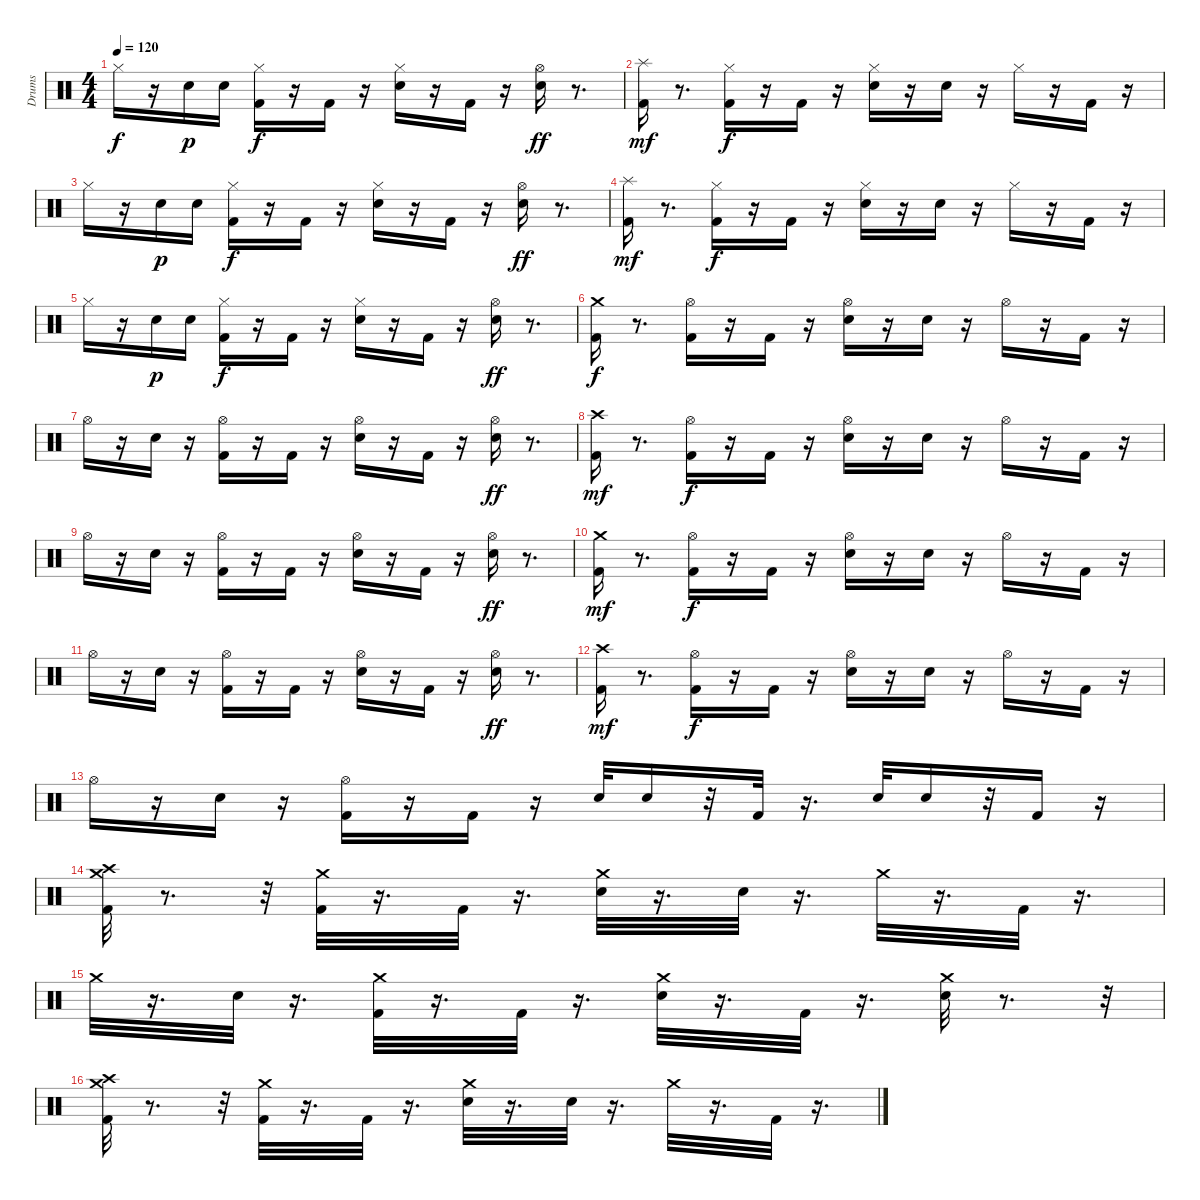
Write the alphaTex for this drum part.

\track ("Drums" "Drums") {instrument percussion}
\staff {score}
\articulation defaults
\ts (4 4)
\tempo 120
\clef neutral
\ks c "Hi-Hat (closed)".16{dy f}
r.16 "Snare (hit) 2".16{dy p} "Snare (hit) 2".16 ("Hi-Hat (closed)" "Kick (hit) 2").16{dy f} r.16 "Kick (hit) 2".16 r.16 ("Hi-Hat (closed)" "Snare (hit) 2").16 r.16 "Kick (hit) 2".16 r.16 ("Hi-Hat (open)" "Snare (hit) 2").16{dy ff} r.8{d} |
("Splash (hit)" "Kick (hit) 2").16{dy mf} r.8{d} ("Hi-Hat (closed)" "Kick (hit) 2").16{dy f} r.16 "Kick (hit) 2".16 r.16 ("Hi-Hat (closed)" "Snare (hit) 2").16 r.16 "Snare (hit) 2".16 r.16 "Hi-Hat (closed)".16 r.16 "Kick (hit) 2".16 r.16 |
"Hi-Hat (closed)".16 r.16 "Snare (hit) 2".16{dy p} "Snare (hit) 2".16 ("Hi-Hat (closed)" "Kick (hit) 2").16{dy f} r.16 "Kick (hit) 2".16 r.16 ("Hi-Hat (closed)" "Snare (hit) 2").16 r.16 "Kick (hit) 2".16 r.16 ("Hi-Hat (open)" "Snare (hit) 2").16{dy ff} r.8{d} |
("Splash (hit)" "Kick (hit) 2").16{dy mf} r.8{d} ("Hi-Hat (closed)" "Kick (hit) 2").16{dy f} r.16 "Kick (hit) 2".16 r.16 ("Hi-Hat (closed)" "Snare (hit) 2").16 r.16 "Snare (hit) 2".16 r.16 "Hi-Hat (closed)".16 r.16 "Kick (hit) 2".16 r.16 |
"Hi-Hat (closed)".16 r.16 "Snare (hit) 2".16{dy p} "Snare (hit) 2".16 ("Hi-Hat (closed)" "Kick (hit) 2").16{dy f} r.16 "Kick (hit) 2".16 r.16 ("Hi-Hat (closed)" "Snare (hit) 2").16 r.16 "Kick (hit) 2".16 r.16 ("Hi-Hat (open)" "Snare (hit) 2").16{dy ff} r.8{d} |
("Crash medium (hit)" "Kick (hit) 2").16{dy f} r.8{d} ("Hi-Hat (open)" "Kick (hit) 2").16 r.16 "Kick (hit) 2".16 r.16 ("Hi-Hat (open)" "Snare (hit) 2").16 r.16 "Snare (hit) 2".16 r.16 "Hi-Hat (open)".16 r.16 "Kick (hit) 2".16 r.16 |
"Hi-Hat (open)".16 r.16 "Snare (hit) 2".16 r.16 ("Hi-Hat (open)" "Kick (hit) 2").16 r.16 "Kick (hit) 2".16 r.16 ("Hi-Hat (open)" "Snare (hit) 2").16 r.16 "Kick (hit) 2".16 r.16 ("Hi-Hat (open)" "Snare (hit) 2").16{dy ff} r.8{d} |
("Crash high (hit)" "Kick (hit) 2").16{dy mf} r.8{d} ("Hi-Hat (open)" "Kick (hit) 2").16{dy f} r.16 "Kick (hit) 2".16 r.16 ("Hi-Hat (open)" "Snare (hit) 2").16 r.16 "Snare (hit) 2".16 r.16 "Hi-Hat (open)".16 r.16 "Kick (hit) 2".16 r.16 |
"Hi-Hat (open)".16 r.16 "Snare (hit) 2".16 r.16 ("Hi-Hat (open)" "Kick (hit) 2").16 r.16 "Kick (hit) 2".16 r.16 ("Hi-Hat (open)" "Snare (hit) 2").16 r.16 "Kick (hit) 2".16 r.16 ("Hi-Hat (open)" "Snare (hit) 2").16{dy ff} r.8{d} |
("Kick (hit) 2" "Crash medium (hit)").16{dy mf} r.8{d} ("Hi-Hat (open)" "Kick (hit) 2").16{dy f} r.16 "Kick (hit) 2".16 r.16 ("Hi-Hat (open)" "Snare (hit) 2").16 r.16 "Snare (hit) 2".16 r.16 "Hi-Hat (open)".16 r.16 "Kick (hit) 2".16 r.16 |
"Hi-Hat (open)".16 r.16 "Snare (hit) 2".16 r.16 ("Hi-Hat (open)" "Kick (hit) 2").16 r.16 "Kick (hit) 2".16 r.16 ("Hi-Hat (open)" "Snare (hit) 2").16 r.16 "Kick (hit) 2".16 r.16 ("Hi-Hat (open)" "Snare (hit) 2").16{dy ff} r.8{d} |
("Kick (hit) 2" "Crash high (hit)").16{dy mf} r.8{d} ("Hi-Hat (open)" "Kick (hit) 2").16{dy f} r.16 "Kick (hit) 2".16 r.16 ("Hi-Hat (open)" "Snare (hit) 2").16 r.16 "Snare (hit) 2".16 r.16 "Hi-Hat (open)".16 r.16 "Kick (hit) 2".16 r.16 |
"Hi-Hat (open)".16 r.16 "Snare (hit) 2".16 r.16 ("Hi-Hat (open)" "Kick (hit) 2").16 r.16 "Kick (hit) 2".16 r.16 "Snare (hit) 2".32 "Snare (hit) 2".16 r.32 "Kick (hit) 2".32 r.16{d} "Snare (hit) 2".32 "Snare (hit) 2".16 r.32 "Kick (hit) 2".16 r.16 |
("Crash medium (hit)" "Crash high (hit)" "Kick (hit) 2").32 r.8{d} r.32 ("Crash medium (hit)" "Kick (hit) 2").32 r.16{d} "Kick (hit) 2".32 r.16{d} ("Crash medium (hit)" "Snare (hit) 2").32 r.16{d} "Snare (hit) 2".32 r.16{d} "Crash medium (hit)".32 r.16{d} "Kick (hit) 2".32 r.16{d} |
"Crash medium (hit)".32 r.16{d} "Snare (hit) 2".32 r.16{d} ("Kick (hit) 2" "Crash medium (hit)").32 r.16{d} "Kick (hit) 2".32 r.16{d} ("Snare (hit) 2" "Crash medium (hit)").32 r.16{d} "Kick (hit) 2".32 r.16{d} ("Crash medium (hit)" "Snare (hit) 2").32 r.8{d} r.32 |
("Crash medium (hit)" "Crash high (hit)" "Kick (hit) 2").32 r.8{d} r.32 ("Crash medium (hit)" "Kick (hit) 2").32 r.16{d} "Kick (hit) 2".32 r.16{d} ("Crash medium (hit)" "Snare (hit) 2").32 r.16{d} "Snare (hit) 2".32 r.16{d} "Crash medium (hit)".32 r.16{d} "Kick (hit) 2".32 r.16{d}
